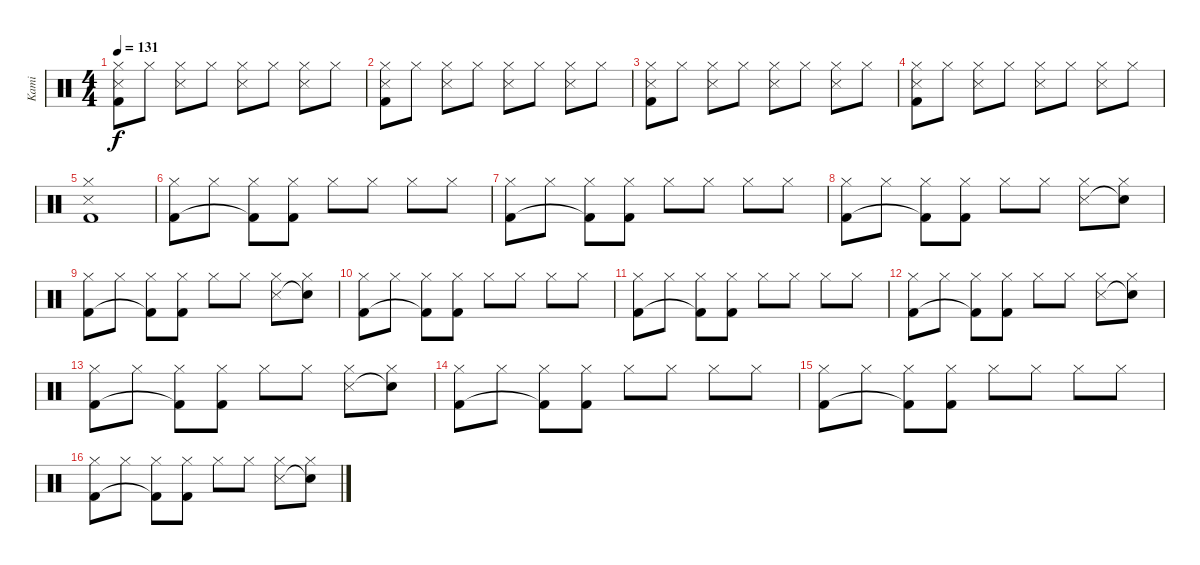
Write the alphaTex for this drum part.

\track ("Kami" "Kami") {instrument percussion}
\staff {score}
\articulation defaults
\ts (4 4)
\tempo 131
\clef neutral
\ks c
("Hi-Hat (closed)" "Kick (hit) 2" "Snare (side stick) 3").8{dy f} "Hi-Hat (closed)".8 ("Hi-Hat (closed)" "Snare (side stick) 3").8 "Hi-Hat (closed)".8 ("Hi-Hat (closed)" "Snare (side stick) 3").8 "Hi-Hat (closed)".8 ("Hi-Hat (closed)" "Snare (side stick) 3").8 "Hi-Hat (closed)".8 |
("Hi-Hat (closed)" "Kick (hit) 2" "Snare (side stick) 3").8 "Hi-Hat (closed)".8 ("Hi-Hat (closed)" "Snare (side stick) 3").8 "Hi-Hat (closed)".8 ("Hi-Hat (closed)" "Snare (side stick) 3").8 "Hi-Hat (closed)".8 ("Hi-Hat (closed)" "Snare (side stick) 3").8 "Hi-Hat (closed)".8 |
("Hi-Hat (closed)" "Kick (hit) 2" "Snare (side stick) 3").8 "Hi-Hat (closed)".8 ("Hi-Hat (closed)" "Snare (side stick) 3").8 "Hi-Hat (closed)".8 ("Hi-Hat (closed)" "Snare (side stick) 3").8 "Hi-Hat (closed)".8 ("Hi-Hat (closed)" "Snare (side stick) 3").8 "Hi-Hat (closed)".8 |
("Hi-Hat (closed)" "Kick (hit) 2" "Snare (side stick) 3").8 "Hi-Hat (closed)".8 ("Hi-Hat (closed)" "Snare (side stick) 3").8 "Hi-Hat (closed)".8 ("Hi-Hat (closed)" "Snare (side stick) 3").8 "Hi-Hat (closed)".8 ("Hi-Hat (closed)" "Snare (side stick) 3").8 "Hi-Hat (closed)".8 |
("Hi-Hat (closed)" "Kick (hit) 2" "Snare (side stick) 3").1 |
("Hi-Hat (closed)" "Kick (hit) 2").8 "Hi-Hat (closed)".8 ("Hi-Hat (closed)" "Kick (hit) 2"{t}).8 ("Hi-Hat (closed)" "Kick (hit) 2").8 "Hi-Hat (closed)".8 "Hi-Hat (closed)".8 "Hi-Hat (closed)".8 "Hi-Hat (closed)".8 |
("Hi-Hat (closed)" "Kick (hit) 2").8 "Hi-Hat (closed)".8 ("Hi-Hat (closed)" "Kick (hit) 2"{t}).8 ("Hi-Hat (closed)" "Kick (hit) 2").8 "Hi-Hat (closed)".8 "Hi-Hat (closed)".8 "Hi-Hat (closed)".8 "Hi-Hat (closed)".8 |
("Hi-Hat (closed)" "Kick (hit) 2").8 "Hi-Hat (closed)".8 ("Hi-Hat (closed)" "Kick (hit) 2"{t}).8 ("Hi-Hat (closed)" "Kick (hit) 2").8 "Hi-Hat (closed)".8 "Hi-Hat (closed)".8 ("Hi-Hat (closed)" "Snare (side stick) 3").8 ("Hi-Hat (closed)" "Snare (hit)"{t}).8 |
("Hi-Hat (closed)" "Kick (hit) 2").8 "Hi-Hat (closed)".8 ("Hi-Hat (closed)" "Kick (hit) 2"{t}).8 ("Hi-Hat (closed)" "Kick (hit) 2").8 "Hi-Hat (closed)".8 "Hi-Hat (closed)".8 ("Hi-Hat (closed)" "Snare (side stick) 3").8 ("Hi-Hat (closed)" "Snare (hit)"{t}).8 |
("Hi-Hat (closed)" "Kick (hit) 2").8 "Hi-Hat (closed)".8 ("Hi-Hat (closed)" "Kick (hit) 2"{t}).8 ("Hi-Hat (closed)" "Kick (hit) 2").8 "Hi-Hat (closed)".8 "Hi-Hat (closed)".8 "Hi-Hat (closed)".8 "Hi-Hat (closed)".8 |
("Hi-Hat (closed)" "Kick (hit) 2").8 "Hi-Hat (closed)".8 ("Hi-Hat (closed)" "Kick (hit) 2"{t}).8 ("Hi-Hat (closed)" "Kick (hit) 2").8 "Hi-Hat (closed)".8 "Hi-Hat (closed)".8 "Hi-Hat (closed)".8 "Hi-Hat (closed)".8 |
("Hi-Hat (closed)" "Kick (hit) 2").8 "Hi-Hat (closed)".8 ("Hi-Hat (closed)" "Kick (hit) 2"{t}).8 ("Hi-Hat (closed)" "Kick (hit) 2").8 "Hi-Hat (closed)".8 "Hi-Hat (closed)".8 ("Hi-Hat (closed)" "Snare (side stick) 3").8 ("Hi-Hat (closed)" "Snare (hit)"{t}).8 |
("Hi-Hat (closed)" "Kick (hit) 2").8 "Hi-Hat (closed)".8 ("Hi-Hat (closed)" "Kick (hit) 2"{t}).8 ("Hi-Hat (closed)" "Kick (hit) 2").8 "Hi-Hat (closed)".8 "Hi-Hat (closed)".8 ("Hi-Hat (closed)" "Snare (side stick) 3").8 ("Hi-Hat (closed)" "Snare (hit)"{t}).8 |
("Hi-Hat (closed)" "Kick (hit) 2").8 "Hi-Hat (closed)".8 ("Hi-Hat (closed)" "Kick (hit) 2"{t}).8 ("Hi-Hat (closed)" "Kick (hit) 2").8 "Hi-Hat (closed)".8 "Hi-Hat (closed)".8 "Hi-Hat (closed)".8 "Hi-Hat (closed)".8 |
("Hi-Hat (closed)" "Kick (hit) 2").8 "Hi-Hat (closed)".8 ("Hi-Hat (closed)" "Kick (hit) 2"{t}).8 ("Hi-Hat (closed)" "Kick (hit) 2").8 "Hi-Hat (closed)".8 "Hi-Hat (closed)".8 "Hi-Hat (closed)".8 "Hi-Hat (closed)".8 |
("Hi-Hat (closed)" "Kick (hit) 2").8 "Hi-Hat (closed)".8 ("Hi-Hat (closed)" "Kick (hit) 2"{t}).8 ("Hi-Hat (closed)" "Kick (hit) 2").8 "Hi-Hat (closed)".8 "Hi-Hat (closed)".8 ("Hi-Hat (closed)" "Snare (side stick) 3").8 ("Hi-Hat (closed)" "Snare (hit)"{t}).8
